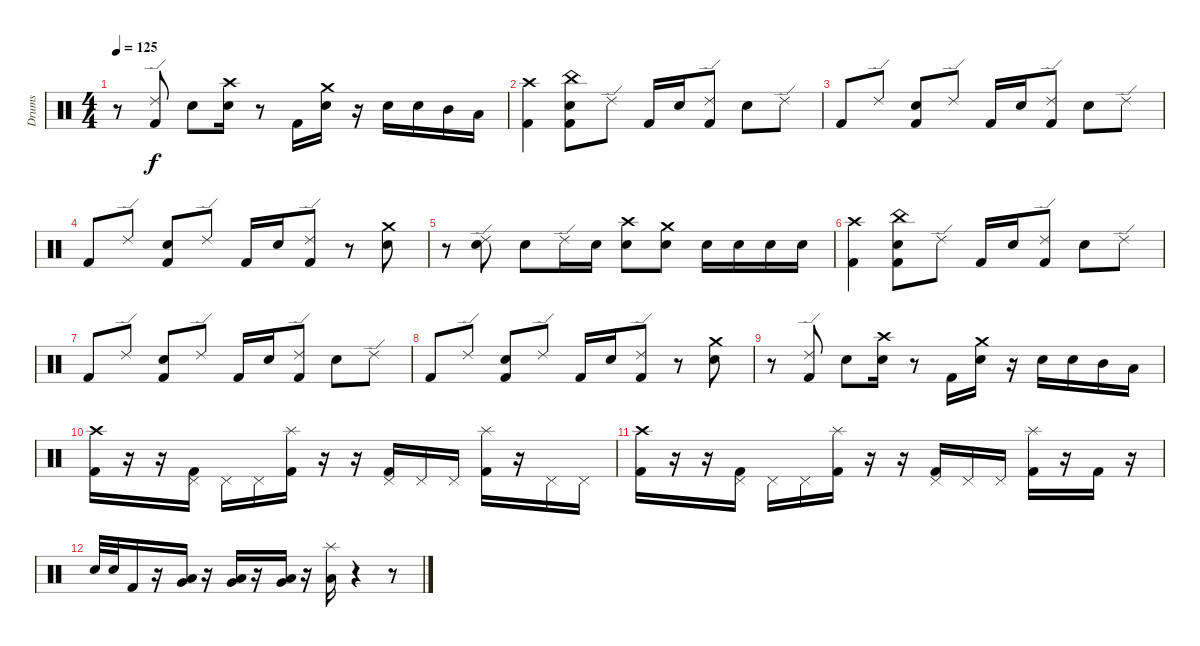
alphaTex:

\track ("Drums" "Drums") {instrument percussion}
\staff
\articulation defaults
\ts (4 4)
\tempo 125
\clef neutral
\ks c
r.8{dy f} ("Ride (edge) 2" "Kick (hit) 2").8 "Electric Snare (hit)".8 ("Crash high (hit)" "Electric Snare (hit)").16 r.8 "Kick (hit) 2".16 ("Crash medium (hit)" "Electric Snare (hit)").16 r.16 "Electric Snare (hit)".16 "Electric Snare (hit)".16 "Mid Tom (hit)".16 "Low Tom (hit)".16 |
("Crash high (hit)" "Kick (hit) 2").4 ("China (hit)" "Electric Snare (hit)" "Kick (hit) 2").8 "Ride (edge) 2".8 "Kick (hit) 2".16 "Electric Snare (hit)".16 ("Ride (edge) 2" "Kick (hit) 2").8 "Electric Snare (hit)".8 "Ride (edge) 2".8 |
"Kick (hit) 2".8 "Ride (edge) 2".8 ("Electric Snare (hit)" "Kick (hit) 2").8 "Ride (edge) 2".8 "Kick (hit) 2".16 "Electric Snare (hit)".16 ("Ride (edge) 2" "Kick (hit) 2").8 "Electric Snare (hit)".8 "Ride (edge) 2".8 |
"Kick (hit) 2".8 "Ride (edge) 2".8 ("Electric Snare (hit)" "Kick (hit) 2").8 "Ride (edge) 2".8 "Kick (hit) 2".16 "Electric Snare (hit)".16 ("Ride (edge) 2" "Kick (hit) 2").8 r.8 ("Crash medium (hit)" "Electric Snare (hit)").8 |
r.8 ("Ride (edge) 2" "Electric Snare (hit)").8 "Electric Snare (hit)".8 "Ride (edge) 2".16 "Electric Snare (hit)".16 ("Crash high (hit)" "Electric Snare (hit)").8 ("Crash medium (hit)" "Electric Snare (hit)").8 "Electric Snare (hit)".16 "Electric Snare (hit)".16 "Electric Snare (hit)".16 "Electric Snare (hit)".16 |
("Crash high (hit)" "Kick (hit) 2").4 ("China (hit)" "Electric Snare (hit)" "Kick (hit) 2").8 "Ride (edge) 2".8 "Kick (hit) 2".16 "Electric Snare (hit)".16 ("Ride (edge) 2" "Kick (hit) 2").8 "Electric Snare (hit)".8 "Ride (edge) 2".8 |
"Kick (hit) 2".8 "Ride (edge) 2".8 ("Electric Snare (hit)" "Kick (hit) 2").8 "Ride (edge) 2".8 "Kick (hit) 2".16 "Electric Snare (hit)".16 ("Ride (edge) 2" "Kick (hit) 2").8 "Electric Snare (hit)".8 "Ride (edge) 2".8 |
"Kick (hit) 2".8 "Ride (edge) 2".8 ("Electric Snare (hit)" "Kick (hit) 2").8 "Ride (edge) 2".8 "Kick (hit) 2".16 "Electric Snare (hit)".16 ("Ride (edge) 2" "Kick (hit) 2").8 r.8 ("Crash medium (hit)" "Electric Snare (hit)").8 |
r.8 ("Ride (edge) 2" "Kick (hit) 2").8 "Electric Snare (hit)".8 ("Crash high (hit)" "Electric Snare (hit)").16 r.8 "Kick (hit) 2".16 ("Crash medium (hit)" "Electric Snare (hit)").16 r.16 "Electric Snare (hit)".16 "Electric Snare (hit)".16 "Mid Tom (hit)".16 "Low Tom (hit)".16 |
("Crash high (hit)" "Kick (hit) 2").16 r.16 r.16 ("Pedal Hi-Hat (hit)" "Kick (hit) 2").16 "Pedal Hi-Hat (hit)".16 "Pedal Hi-Hat (hit)".16 ("Splash (hit)" "Kick (hit) 2").16 r.16 r.16 ("Pedal Hi-Hat (hit)" "Kick (hit) 2").16 "Pedal Hi-Hat (hit)".16 "Pedal Hi-Hat (hit)".16 ("Splash (hit)" "Kick (hit) 2").16 r.16 "Pedal Hi-Hat (hit)".16 "Pedal Hi-Hat (hit)".16 |
("Crash high (hit)" "Kick (hit) 2").16 r.16 r.16 ("Pedal Hi-Hat (hit)" "Kick (hit) 2").16 "Pedal Hi-Hat (hit)".16 "Pedal Hi-Hat (hit)".16 ("Splash (hit)" "Kick (hit) 2").16 r.16 r.16 ("Pedal Hi-Hat (hit)" "Kick (hit) 2").16 "Pedal Hi-Hat (hit)".16 "Pedal Hi-Hat (hit)".16 ("Splash (hit)" "Kick (hit) 2").16 r.16 "Kick (hit) 2".16 r.16 |
"Electric Snare (hit)".32 "Electric Snare (hit)".32 "Kick (hit) 2".16 r.16 ("Very Low Tom (hit)" "Low Tom (hit)").16 r.16 ("Very Low Tom (hit)" "Low Tom (hit)").16 r.16 ("Very Low Tom (hit)" "Low Tom (hit)").16 r.16 ("Splash (hit)" "Low Tom (hit)").16 r.4 r.8
